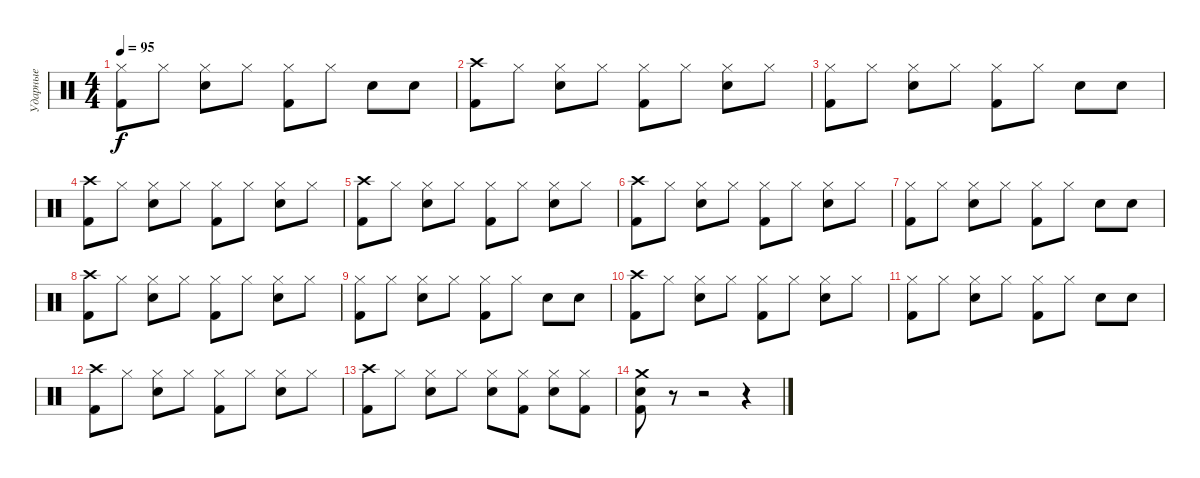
\track ("Ударные" "Ударные") {instrument percussion}
\staff {score}
\articulation defaults
\ts (4 4)
\tempo 95
\clef neutral
\ks c
("Hi-Hat (closed)" "Kick (hit) 2").8{dy f} "Hi-Hat (closed)".8 ("Hi-Hat (closed)" "Snare (hit) 2").8 "Hi-Hat (closed)".8 ("Hi-Hat (closed)" "Kick (hit) 2").8 "Hi-Hat (closed)".8 "Snare (hit) 2".8 "Snare (hit) 2".8 |
("Crash high (hit)" "Kick (hit) 2").8 "Hi-Hat (closed)".8 ("Hi-Hat (closed)" "Snare (hit) 2").8 "Hi-Hat (closed)".8 ("Hi-Hat (closed)" "Kick (hit) 2").8 "Hi-Hat (closed)".8 ("Hi-Hat (closed)" "Snare (hit) 2").8 "Hi-Hat (closed)".8 |
("Hi-Hat (closed)" "Kick (hit) 2").8 "Hi-Hat (closed)".8 ("Hi-Hat (closed)" "Snare (hit) 2").8 "Hi-Hat (closed)".8 ("Hi-Hat (closed)" "Kick (hit) 2").8 "Hi-Hat (closed)".8 "Snare (hit) 2".8 "Snare (hit) 2".8 |
("Crash high (hit)" "Kick (hit) 2").8 "Hi-Hat (closed)".8 ("Hi-Hat (closed)" "Snare (hit) 2").8 "Hi-Hat (closed)".8 ("Hi-Hat (closed)" "Kick (hit) 2").8 "Hi-Hat (closed)".8 ("Hi-Hat (closed)" "Snare (hit) 2").8 "Hi-Hat (closed)".8 |
("Crash high (hit)" "Kick (hit) 2").8 "Hi-Hat (closed)".8 ("Hi-Hat (closed)" "Snare (hit) 2").8 "Hi-Hat (closed)".8 ("Hi-Hat (closed)" "Kick (hit) 2").8 "Hi-Hat (closed)".8 ("Hi-Hat (closed)" "Snare (hit) 2").8 "Hi-Hat (closed)".8 |
("Crash high (hit)" "Kick (hit) 2").8 "Hi-Hat (closed)".8 ("Hi-Hat (closed)" "Snare (hit) 2").8 "Hi-Hat (closed)".8 ("Hi-Hat (closed)" "Kick (hit) 2").8 "Hi-Hat (closed)".8 ("Hi-Hat (closed)" "Snare (hit) 2").8 "Hi-Hat (closed)".8 |
("Hi-Hat (closed)" "Kick (hit) 2").8 "Hi-Hat (closed)".8 ("Hi-Hat (closed)" "Snare (hit) 2").8 "Hi-Hat (closed)".8 ("Hi-Hat (closed)" "Kick (hit) 2").8 "Hi-Hat (closed)".8 "Snare (hit) 2".8 "Snare (hit) 2".8 |
("Crash high (hit)" "Kick (hit) 2").8 "Hi-Hat (closed)".8 ("Hi-Hat (closed)" "Snare (hit) 2").8 "Hi-Hat (closed)".8 ("Hi-Hat (closed)" "Kick (hit) 2").8 "Hi-Hat (closed)".8 ("Hi-Hat (closed)" "Snare (hit) 2").8 "Hi-Hat (closed)".8 |
("Hi-Hat (closed)" "Kick (hit) 2").8 "Hi-Hat (closed)".8 ("Hi-Hat (closed)" "Snare (hit) 2").8 "Hi-Hat (closed)".8 ("Hi-Hat (closed)" "Kick (hit) 2").8 "Hi-Hat (closed)".8 "Snare (hit) 2".8 "Snare (hit) 2".8 |
("Crash high (hit)" "Kick (hit) 2").8 "Hi-Hat (closed)".8 ("Hi-Hat (closed)" "Snare (hit) 2").8 "Hi-Hat (closed)".8 ("Hi-Hat (closed)" "Kick (hit) 2").8 "Hi-Hat (closed)".8 ("Hi-Hat (closed)" "Snare (hit) 2").8 "Hi-Hat (closed)".8 |
("Hi-Hat (closed)" "Kick (hit) 2").8 "Hi-Hat (closed)".8 ("Hi-Hat (closed)" "Snare (hit) 2").8 "Hi-Hat (closed)".8 ("Hi-Hat (closed)" "Kick (hit) 2").8 "Hi-Hat (closed)".8 "Snare (hit) 2".8 "Snare (hit) 2".8 |
("Crash high (hit)" "Kick (hit) 2").8 "Hi-Hat (closed)".8 ("Hi-Hat (closed)" "Snare (hit) 2").8 "Hi-Hat (closed)".8 ("Hi-Hat (closed)" "Kick (hit) 2").8 "Hi-Hat (closed)".8 ("Hi-Hat (closed)" "Snare (hit) 2").8 "Hi-Hat (closed)".8 |
("Crash high (hit)" "Kick (hit) 2").8 "Hi-Hat (closed)".8 ("Hi-Hat (closed)" "Snare (hit) 2").8 "Hi-Hat (closed)".8 ("Hi-Hat (closed)" "Snare (hit) 2").8 ("Hi-Hat (closed)" "Kick (hit) 2").8 ("Hi-Hat (closed)" "Snare (hit) 2").8 ("Hi-Hat (closed)" "Kick (hit) 2").8 |
("Crash medium (hit)" "Snare (hit) 2" "Kick (hit) 2").8 r.8 r.2 r.4
